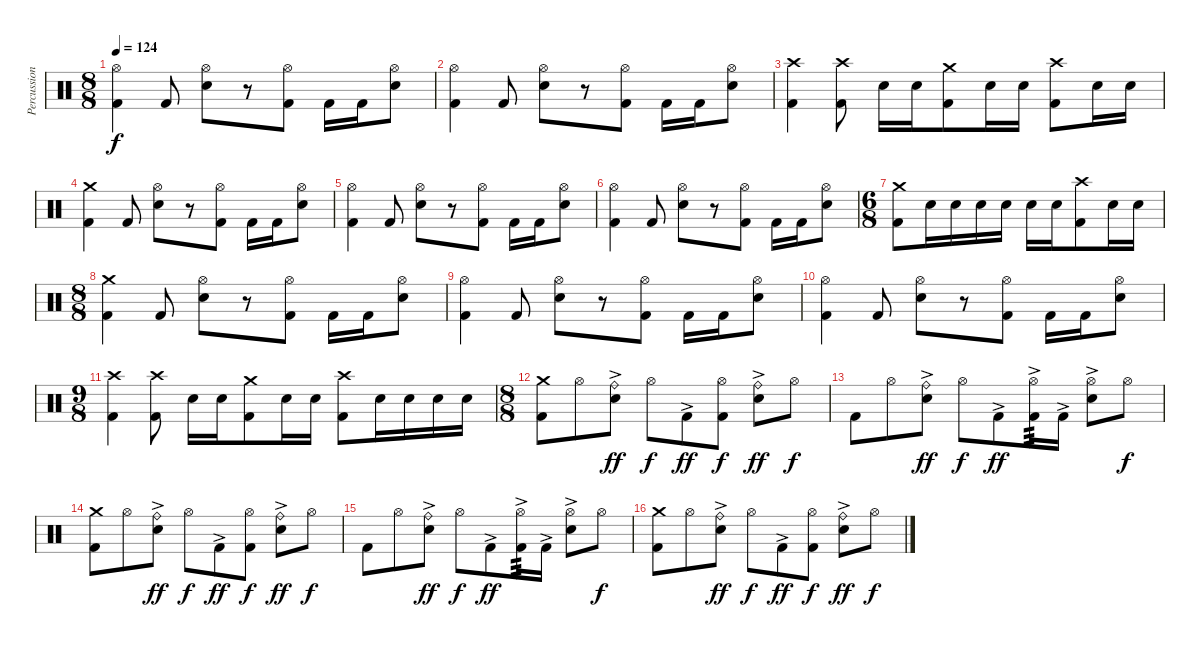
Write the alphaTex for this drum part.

\track ("Percussion" "Percussion") {instrument percussion}
\staff {score}
\articulation defaults
\ts (8 8)
\tempo 124
\clef neutral
\ks c
("Hi-Hat (open)" "Kick (hit) 2").4{dy f} "Kick (hit) 2".8 ("Hi-Hat (open)" "Electric Snare (hit)").8 r.8 ("Hi-Hat (open)" "Kick (hit) 2").8 "Kick (hit) 2".16 "Kick (hit) 2".16 ("Hi-Hat (open)" "Electric Snare (hit)").8 |
("Hi-Hat (open)" "Kick (hit) 2").4 "Kick (hit) 2".8 ("Hi-Hat (open)" "Electric Snare (hit)").8 r.8 ("Hi-Hat (open)" "Kick (hit) 2").8 "Kick (hit) 2".16 "Kick (hit) 2".16 ("Hi-Hat (open)" "Electric Snare (hit)").8 |
("Crash high (hit)" "Kick (hit) 2").4 ("Crash high (hit)" "Kick (hit) 2").8 "Electric Snare (hit)".16 "Electric Snare (hit)".16 ("Crash medium (hit)" "Kick (hit) 2").8 "Electric Snare (hit)".16 "Electric Snare (hit)".16 ("Crash high (hit)" "Kick (hit) 2").8 "Electric Snare (hit)".16 "Electric Snare (hit)".16 |
("Crash medium (hit)" "Kick (hit) 2").4 "Kick (hit) 2".8 ("Hi-Hat (open)" "Electric Snare (hit)").8 r.8 ("Hi-Hat (open)" "Kick (hit) 2").8 "Kick (hit) 2".16 "Kick (hit) 2".16 ("Hi-Hat (open)" "Electric Snare (hit)").8 |
("Hi-Hat (open)" "Kick (hit) 2").4 "Kick (hit) 2".8 ("Hi-Hat (open)" "Electric Snare (hit)").8 r.8 ("Hi-Hat (open)" "Kick (hit) 2").8 "Kick (hit) 2".16 "Kick (hit) 2".16 ("Hi-Hat (open)" "Electric Snare (hit)").8 |
("Hi-Hat (open)" "Kick (hit) 2").4 "Kick (hit) 2".8 ("Hi-Hat (open)" "Electric Snare (hit)").8 r.8 ("Hi-Hat (open)" "Kick (hit) 2").8 "Kick (hit) 2".16 "Kick (hit) 2".16 ("Hi-Hat (open)" "Electric Snare (hit)").8 |
\ts (6 8)
("Kick (hit) 2" "Crash medium (hit)").8 "Electric Snare (hit)".16 "Electric Snare (hit)".16 "Electric Snare (hit)".16 "Electric Snare (hit)".16 "Electric Snare (hit)".16 "Electric Snare (hit)".16 ("Crash high (hit)" "Kick (hit) 2").8 "Electric Snare (hit)".16 "Electric Snare (hit)".16 |
\ts (8 8)
("Crash medium (hit)" "Kick (hit) 2").4 "Kick (hit) 2".8 ("Hi-Hat (open)" "Electric Snare (hit)").8 r.8 ("Hi-Hat (open)" "Kick (hit) 2").8 "Kick (hit) 2".16 "Kick (hit) 2".16 ("Hi-Hat (open)" "Electric Snare (hit)").8 |
("Hi-Hat (open)" "Kick (hit) 2").4 "Kick (hit) 2".8 ("Hi-Hat (open)" "Electric Snare (hit)").8 r.8 ("Hi-Hat (open)" "Kick (hit) 2").8 "Kick (hit) 2".16 "Kick (hit) 2".16 ("Hi-Hat (open)" "Electric Snare (hit)").8 |
("Hi-Hat (open)" "Kick (hit) 2").4 "Kick (hit) 2".8 ("Hi-Hat (open)" "Electric Snare (hit)").8 r.8 ("Hi-Hat (open)" "Kick (hit) 2").8 "Kick (hit) 2".16 "Kick (hit) 2".16 ("Hi-Hat (open)" "Electric Snare (hit)").8 |
\ts (9 8)
("Crash high (hit)" "Kick (hit) 2").4 ("Crash high (hit)" "Kick (hit) 2").8 "Electric Snare (hit)".16 "Electric Snare (hit)".16 ("Crash medium (hit)" "Kick (hit) 2").8 "Electric Snare (hit)".16 "Electric Snare (hit)".16 ("Crash high (hit)" "Kick (hit) 2").8 "Electric Snare (hit)".16 "Electric Snare (hit)".16 "Electric Snare (hit)".16 "Electric Snare (hit)".16 |
\ts (8 8)
("Crash medium (hit)" "Kick (hit) 2").8 "Hi-Hat (open)".8 ("Ride (bell)" "Electric Snare (hit)"{ac}).8{dy ff} "Hi-Hat (open)".8{dy f} "Kick (hit) 2"{ac}.8{dy ff} ("Hi-Hat (open)" "Kick (hit) 2").8{dy f} ("Ride (bell)" "Electric Snare (hit)"{ac}).8{dy ff} "Hi-Hat (open)".8{dy f} |
"Kick (hit) 2".8 "Hi-Hat (open)".8 ("Ride (bell)" "Electric Snare (hit)"{ac}).8{dy ff} "Hi-Hat (open)".8{dy f} "Kick (hit) 2"{ac}.8{dy ff} ("Hi-Hat (open)" "Kick (hit) 2"{ac}).16{tp 3} "Kick (hit) 2"{ac}.16 ("Hi-Hat (open)" "Electric Snare (hit)"{ac}).8 "Hi-Hat (open)".8{dy f} |
("Crash medium (hit)" "Kick (hit) 2").8 "Hi-Hat (open)".8 ("Ride (bell)" "Electric Snare (hit)"{ac}).8{dy ff} "Hi-Hat (open)".8{dy f} "Kick (hit) 2"{ac}.8{dy ff} ("Hi-Hat (open)" "Kick (hit) 2").8{dy f} ("Ride (bell)" "Electric Snare (hit)"{ac}).8{dy ff} "Hi-Hat (open)".8{dy f} |
"Kick (hit) 2".8 "Hi-Hat (open)".8 ("Ride (bell)" "Electric Snare (hit)"{ac}).8{dy ff} "Hi-Hat (open)".8{dy f} "Kick (hit) 2"{ac}.8{dy ff} ("Hi-Hat (open)" "Kick (hit) 2"{ac}).16{tp 3} "Kick (hit) 2"{ac}.16 ("Hi-Hat (open)" "Electric Snare (hit)"{ac}).8 "Hi-Hat (open)".8{dy f} |
("Crash medium (hit)" "Kick (hit) 2").8 "Hi-Hat (open)".8 ("Ride (bell)" "Electric Snare (hit)"{ac}).8{dy ff} "Hi-Hat (open)".8{dy f} "Kick (hit) 2"{ac}.8{dy ff} ("Hi-Hat (open)" "Kick (hit) 2").8{dy f} ("Ride (bell)" "Electric Snare (hit)"{ac}).8{dy ff} "Hi-Hat (open)".8{dy f}
